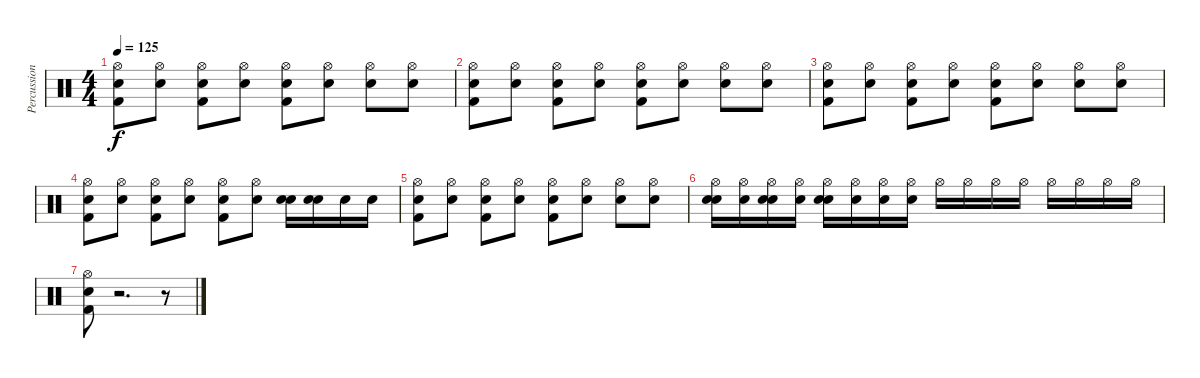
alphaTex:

\track ("Percussions" "Percussion") {instrument percussion}
\staff {score}
\articulation defaults
\ts (4 4)
\tempo 125
\clef neutral
\ks c
("Hi-Hat (open)" "Snare (hit)" "Kick (hit) 2").8{dy f} ("Hi-Hat (open)" "Snare (hit) 2").8 ("Hi-Hat (open)" "Snare (hit)" "Kick (hit) 2").8 ("Hi-Hat (open)" "Snare (hit) 2").8 ("Hi-Hat (open)" "Snare (hit)" "Kick (hit) 2").8 ("Hi-Hat (open)" "Snare (hit) 2").8 ("Hi-Hat (open)" "Snare (hit)").8 ("Hi-Hat (open)" "Snare (hit) 2").8 |
("Hi-Hat (open)" "Snare (hit)" "Kick (hit) 2").8 ("Hi-Hat (open)" "Snare (hit) 2").8 ("Hi-Hat (open)" "Snare (hit)" "Kick (hit) 2").8 ("Hi-Hat (open)" "Snare (hit) 2").8 ("Hi-Hat (open)" "Snare (hit)" "Kick (hit) 2").8 ("Hi-Hat (open)" "Snare (hit) 2").8 ("Hi-Hat (open)" "Snare (hit)").8 ("Hi-Hat (open)" "Snare (hit) 2").8 |
("Hi-Hat (open)" "Snare (hit)" "Kick (hit) 2").8 ("Hi-Hat (open)" "Snare (hit) 2").8 ("Hi-Hat (open)" "Snare (hit)" "Kick (hit) 2").8 ("Hi-Hat (open)" "Snare (hit) 2").8 ("Hi-Hat (open)" "Snare (hit)" "Kick (hit) 2").8 ("Hi-Hat (open)" "Snare (hit) 2").8 ("Hi-Hat (open)" "Snare (hit)").8 ("Hi-Hat (open)" "Snare (hit) 2").8 |
("Hi-Hat (open)" "Snare (hit)" "Kick (hit) 2").8 ("Hi-Hat (open)" "Snare (hit) 2").8 ("Hi-Hat (open)" "Snare (hit)" "Kick (hit) 2").8 ("Hi-Hat (open)" "Snare (hit) 2").8 ("Hi-Hat (open)" "Snare (hit)" "Kick (hit) 2").8 ("Hi-Hat (open)" "Snare (hit) 2").8 ("Snare (hit)" "Snare (hit) 2").16 ("Snare (hit)" "Snare (hit) 2").16 "Snare (hit) 2".16 "Snare (hit) 2".16 |
("Hi-Hat (open)" "Snare (hit)" "Kick (hit) 2").8 ("Hi-Hat (open)" "Snare (hit) 2").8 ("Hi-Hat (open)" "Snare (hit)" "Kick (hit) 2").8 ("Hi-Hat (open)" "Snare (hit) 2").8 ("Hi-Hat (open)" "Snare (hit)" "Kick (hit) 2").8 ("Hi-Hat (open)" "Snare (hit) 2").8 ("Hi-Hat (open)" "Snare (hit)").8 ("Hi-Hat (open)" "Snare (hit) 2").8 |
("Hi-Hat (open)" "Snare (hit)" "Snare (hit)").16 ("Hi-Hat (open)" "Snare (hit)").16 ("Hi-Hat (open)" "Snare (hit)" "Snare (hit)").16 ("Hi-Hat (open)" "Snare (hit)").16 ("Hi-Hat (open)" "Snare (hit)" "Snare (hit)").16 ("Hi-Hat (open)" "Snare (hit)").16 ("Hi-Hat (open)" "Snare (hit)").16 ("Hi-Hat (open)" "Snare (hit)").16 "Hi-Hat (open)".16 "Hi-Hat (open)".16 "Hi-Hat (open)".16 "Hi-Hat (open)".16 "Hi-Hat (open)".16 "Hi-Hat (open)".16 "Hi-Hat (open)".16 "Hi-Hat (open)".16 |
("Hi-Hat (open)" "Snare (hit) 2" "Kick (hit) 2").8 r.2{d} r.8
